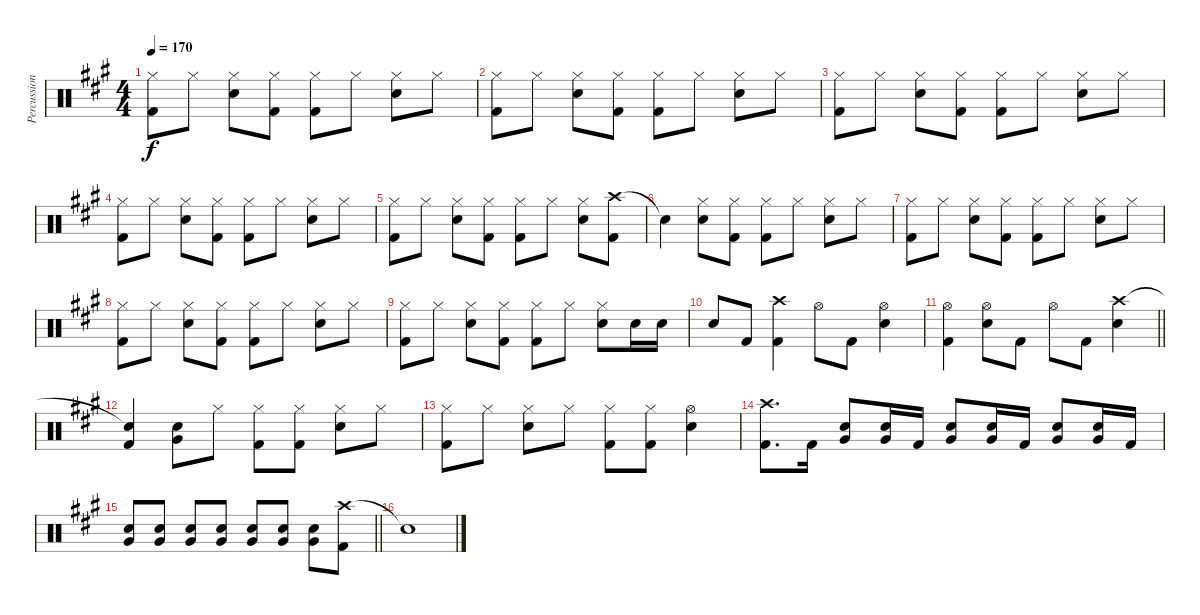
\track ("Percussion" "Percussion") {instrument percussion}
\staff {score}
\articulation defaults
\ts (4 4)
\tempo 170
\clef neutral
\ks a
("Hi-Hat (closed)" "Kick (hit) 2").8{dy f} "Hi-Hat (closed)".8 ("Hi-Hat (closed)" "Snare (hit) 2").8 ("Hi-Hat (closed)" "Kick (hit) 2").8 ("Hi-Hat (closed)" "Kick (hit) 2").8 "Hi-Hat (closed)".8 ("Hi-Hat (closed)" "Snare (hit) 2").8 "Hi-Hat (closed)".8 |
("Hi-Hat (closed)" "Kick (hit) 2").8 "Hi-Hat (closed)".8 ("Hi-Hat (closed)" "Snare (hit) 2").8 ("Hi-Hat (closed)" "Kick (hit) 2").8 ("Hi-Hat (closed)" "Kick (hit) 2").8 "Hi-Hat (closed)".8 ("Hi-Hat (closed)" "Snare (hit) 2").8 "Hi-Hat (closed)".8 |
("Hi-Hat (closed)" "Kick (hit) 2").8 "Hi-Hat (closed)".8 ("Hi-Hat (closed)" "Snare (hit) 2").8 ("Hi-Hat (closed)" "Kick (hit) 2").8 ("Hi-Hat (closed)" "Kick (hit) 2").8 "Hi-Hat (closed)".8 ("Hi-Hat (closed)" "Snare (hit) 2").8 "Hi-Hat (closed)".8 |
("Hi-Hat (closed)" "Kick (hit) 2").8 "Hi-Hat (closed)".8 ("Hi-Hat (closed)" "Snare (hit) 2").8 ("Hi-Hat (closed)" "Kick (hit) 2").8 ("Hi-Hat (closed)" "Kick (hit) 2").8 "Hi-Hat (closed)".8 ("Hi-Hat (closed)" "Snare (hit) 2").8 "Hi-Hat (closed)".8 |
("Hi-Hat (closed)" "Kick (hit) 2").8 "Hi-Hat (closed)".8 ("Hi-Hat (closed)" "Snare (hit) 2").8 ("Hi-Hat (closed)" "Kick (hit) 2").8 ("Hi-Hat (closed)" "Kick (hit) 2").8 "Hi-Hat (closed)".8 ("Hi-Hat (closed)" "Snare (hit) 2").8 ("Crash high (hit)" "Kick (hit) 2").8 |
"Snare (hit)"{t}.4 ("Hi-Hat (closed)" "Snare (hit) 2").8 ("Hi-Hat (closed)" "Kick (hit) 2").8 ("Hi-Hat (closed)" "Kick (hit) 2").8 "Hi-Hat (closed)".8 ("Hi-Hat (closed)" "Snare (hit) 2").8 "Hi-Hat (closed)".8 |
("Hi-Hat (closed)" "Kick (hit) 2").8 "Hi-Hat (closed)".8 ("Hi-Hat (closed)" "Snare (hit) 2").8 ("Hi-Hat (closed)" "Kick (hit) 2").8 ("Hi-Hat (closed)" "Kick (hit) 2").8 "Hi-Hat (closed)".8 ("Hi-Hat (closed)" "Snare (hit) 2").8 "Hi-Hat (closed)".8 |
("Hi-Hat (closed)" "Kick (hit) 2").8 "Hi-Hat (closed)".8 ("Hi-Hat (closed)" "Snare (hit) 2").8 ("Hi-Hat (closed)" "Kick (hit) 2").8 ("Hi-Hat (closed)" "Kick (hit) 2").8 "Hi-Hat (closed)".8 ("Hi-Hat (closed)" "Snare (hit) 2").8 "Hi-Hat (closed)".8 |
("Hi-Hat (closed)" "Kick (hit) 2").8 "Hi-Hat (closed)".8 ("Hi-Hat (closed)" "Snare (hit) 2").8 ("Hi-Hat (closed)" "Kick (hit) 2").8 ("Hi-Hat (closed)" "Kick (hit) 2").8 "Hi-Hat (closed)".8 ("Hi-Hat (closed)" "Snare (hit) 2").8 "Snare (hit) 2".16 "Snare (hit) 2".16 |
"Snare (hit) 2".8 "Kick (hit) 2".8 ("Crash high (hit)" "Kick (hit) 2").4 "Hi-Hat (open)".8 "Kick (hit) 2".8 ("Hi-Hat (open)" "Snare (hit) 2").4 |
\barLineRight lightlight
("Hi-Hat (open)" "Kick (hit) 2").4 ("Hi-Hat (open)" "Snare (hit) 2").8 "Kick (hit) 2".8 "Hi-Hat (open)".8 "Kick (hit) 2".8 ("Crash high (hit)" "Snare (hit) 2").4 |
("Snare (hit)"{t} "Kick (hit) 2").4 ("Snare (hit) 2" "Very Low Tom (hit)").8 "Hi-Hat (closed)".8 ("Hi-Hat (closed)" "Kick (hit) 2").8 ("Hi-Hat (closed)" "Kick (hit) 2").8 ("Hi-Hat (closed)" "Snare (hit) 2").8 "Hi-Hat (closed)".8 |
("Hi-Hat (closed)" "Kick (hit) 2").8 "Hi-Hat (closed)".8 ("Hi-Hat (closed)" "Snare (hit) 2").8 "Hi-Hat (closed)".8 ("Hi-Hat (closed)" "Kick (hit) 2").8 ("Hi-Hat (closed)" "Kick (hit) 2").8 ("Hi-Hat (open)" "Snare (hit) 2").4 |
("Crash high (hit)" "Kick (hit) 2").8{d} "Kick (hit) 2".16 ("Snare (hit) 2" "Very Low Tom (hit)").8 ("Snare (hit) 2" "Very Low Tom (hit)").16 "Kick (hit) 2".16 ("Snare (hit) 2" "Very Low Tom (hit)").8 ("Snare (hit) 2" "Very Low Tom (hit)").16 "Kick (hit) 2".16 ("Snare (hit) 2" "Very Low Tom (hit)").8 ("Snare (hit) 2" "Very Low Tom (hit)").16 "Kick (hit) 2".16 |
\barLineRight lightlight
("Snare (hit) 2" "Very Low Tom (hit)").8 ("Snare (hit) 2" "Very Low Tom (hit)").8 ("Snare (hit) 2" "Very Low Tom (hit)").8 ("Snare (hit) 2" "Very Low Tom (hit)").8 ("Snare (hit) 2" "Very Low Tom (hit)").8 ("Snare (hit) 2" "Very Low Tom (hit)").8 ("Snare (hit) 2" "Very Low Tom (hit)").8 ("Crash high (hit)" "Kick (hit) 2").8 |
"Snare (hit)"{t}.1
